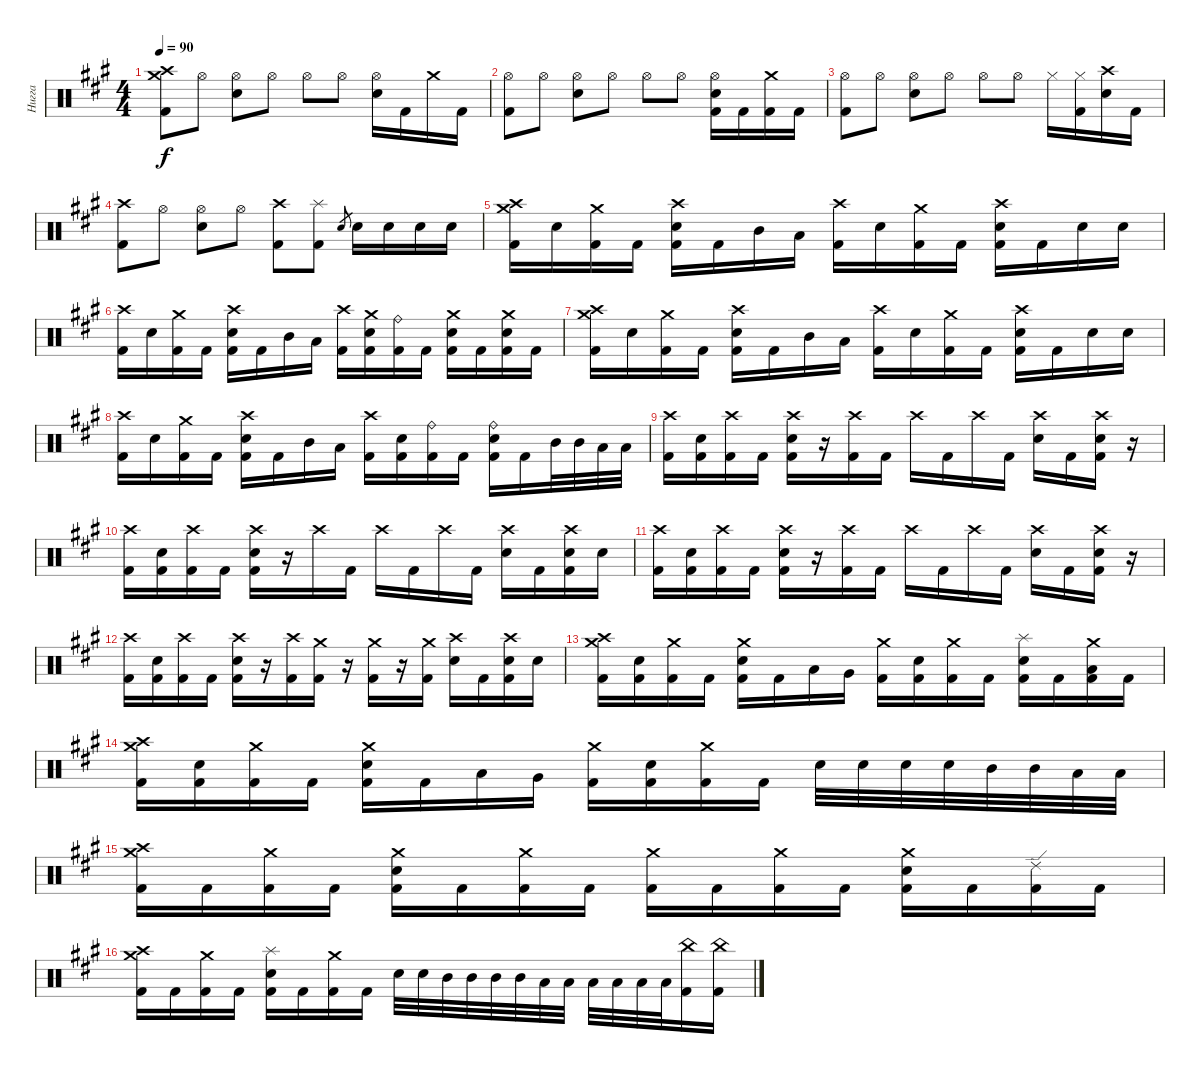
\track ("Нигга" "Нигга") {instrument percussion}
\staff
\articulation defaults
\ts (4 4)
\tempo 90
\clef neutral
\ks f#minor
("Crash high (hit)" "Crash medium (hit)" "Kick (hit) 2").8{dy f} "Hi-Hat (open)".8 ("Hi-Hat (open)" "Electric Snare (hit)").8 "Hi-Hat (open)".8 "Hi-Hat (open)".8 "Hi-Hat (open)".8 ("Hi-Hat (open)" "Electric Snare (hit)").16 "Kick (hit) 2".16 "Crash medium (hit)".16 "Kick (hit) 2".16 |
("Hi-Hat (open)" "Kick (hit) 2").8 "Hi-Hat (open)".8 ("Hi-Hat (open)" "Electric Snare (hit)").8 "Hi-Hat (open)".8 "Hi-Hat (open)".8 "Hi-Hat (open)".8 ("Hi-Hat (open)" "Electric Snare (hit)" "Kick (hit) 2").16 "Kick (hit) 2".16 ("Crash medium (hit)" "Kick (hit) 2").16 "Kick (hit) 2".16 |
("Hi-Hat (open)" "Kick (hit) 2").8 "Hi-Hat (open)".8 ("Hi-Hat (open)" "Electric Snare (hit)").8 "Hi-Hat (open)".8 "Hi-Hat (open)".8 "Hi-Hat (open)".8 "Hi-Hat (closed)".16 ("Hi-Hat (closed)" "Kick (hit) 2").16 ("Crash high (hit)" "Electric Snare (hit)").16 "Kick (hit) 2".16 |
("Crash high (hit)" "Kick (hit) 2").8 "Hi-Hat (open)".8 ("Hi-Hat (open)" "Electric Snare (hit)").8 "Hi-Hat (open)".8 ("Crash high (hit)" "Kick (hit) 2").8 ("Splash (hit)" "Kick (hit) 2").8 "Electric Snare (hit)".8{gr} "Electric Snare (hit)".16 "Electric Snare (hit)".16 "Electric Snare (hit)".16 "Electric Snare (hit)".16 |
("Crash high (hit)" "Crash medium (hit)" "Kick (hit) 2").16 "Electric Snare (hit)".16 ("Crash medium (hit)" "Kick (hit) 2").16 "Kick (hit) 2".16 ("Crash high (hit)" "Electric Snare (hit)" "Kick (hit) 2").16 "Kick (hit) 2".16 "Mid Tom (hit)".16 "Low Tom (hit)".16 ("Crash high (hit)" "Kick (hit) 2").16 "Electric Snare (hit)".16 ("Crash medium (hit)" "Kick (hit) 2").16 "Kick (hit) 2".16 ("Crash high (hit)" "Electric Snare (hit)" "Kick (hit) 2").16 "Kick (hit) 2".16 "Electric Snare (hit)".16 "Electric Snare (hit)".16 |
("Crash high (hit)" "Kick (hit) 2").16 "Electric Snare (hit)".16 ("Crash medium (hit)" "Kick (hit) 2").16 "Kick (hit) 2".16 ("Crash high (hit)" "Electric Snare (hit)" "Kick (hit) 2").16 "Kick (hit) 2".16 "Mid Tom (hit)".16 "Low Tom (hit)".16 ("Crash high (hit)" "Kick (hit) 2").16 ("Crash medium (hit)" "Electric Snare (hit)" "Kick (hit) 2").16 ("Ride (bell)" "Kick (hit) 2").16 "Kick (hit) 2".16 ("Crash medium (hit)" "Electric Snare (hit)" "Kick (hit) 2").16 "Kick (hit) 2".16 ("Crash medium (hit)" "Electric Snare (hit)" "Kick (hit) 2").16 "Kick (hit) 2".16 |
("Crash high (hit)" "Crash medium (hit)" "Kick (hit) 2").16 "Electric Snare (hit)".16 ("Crash medium (hit)" "Kick (hit) 2").16 "Kick (hit) 2".16 ("Crash high (hit)" "Electric Snare (hit)" "Kick (hit) 2").16 "Kick (hit) 2".16 "Mid Tom (hit)".16 "Low Tom (hit)".16 ("Crash high (hit)" "Kick (hit) 2").16 "Electric Snare (hit)".16 ("Crash medium (hit)" "Kick (hit) 2").16 "Kick (hit) 2".16 ("Crash high (hit)" "Electric Snare (hit)" "Kick (hit) 2").16 "Kick (hit) 2".16 "Electric Snare (hit)".16 "Electric Snare (hit)".16 |
("Crash high (hit)" "Kick (hit) 2").16 "Electric Snare (hit)".16 ("Crash medium (hit)" "Kick (hit) 2").16 "Kick (hit) 2".16 ("Crash high (hit)" "Electric Snare (hit)" "Kick (hit) 2").16 "Kick (hit) 2".16 "Mid Tom (hit)".16 "Low Tom (hit)".16 ("Crash high (hit)" "Kick (hit) 2").16 ("Electric Snare (hit)" "Kick (hit) 2").16 ("Ride (bell)" "Kick (hit) 2").16 "Kick (hit) 2".16 ("Ride (bell)" "Electric Snare (hit)" "Kick (hit) 2").16 "Kick (hit) 2".16 "Mid Tom (hit)".32 "Mid Tom (hit)".32 "Low Tom (hit)".32 "Low Tom (hit)".32 |
("Crash high (hit)" "Kick (hit) 2").16 ("Electric Snare (hit)" "Kick (hit) 2").16 ("Crash high (hit)" "Kick (hit) 2").16 "Kick (hit) 2".16 ("Crash high (hit)" "Electric Snare (hit)" "Kick (hit) 2").16 r.16 ("Crash high (hit)" "Kick (hit) 2").16 "Kick (hit) 2".16 "Crash high (hit)".16 "Kick (hit) 2".16 "Crash high (hit)".16 "Kick (hit) 2".16 ("Crash high (hit)" "Electric Snare (hit)").16 "Kick (hit) 2".16 ("Crash high (hit)" "Electric Snare (hit)" "Kick (hit) 2").16 r.16 |
("Crash high (hit)" "Kick (hit) 2").16 ("Electric Snare (hit)" "Kick (hit) 2").16 ("Crash high (hit)" "Kick (hit) 2").16 "Kick (hit) 2".16 ("Crash high (hit)" "Electric Snare (hit)" "Kick (hit) 2").16 r.16 "Crash high (hit)".16 "Kick (hit) 2".16 "Crash high (hit)".16 "Kick (hit) 2".16 "Crash high (hit)".16 "Kick (hit) 2".16 ("Crash high (hit)" "Electric Snare (hit)").16 "Kick (hit) 2".16 ("Crash high (hit)" "Electric Snare (hit)" "Kick (hit) 2").16 "Electric Snare (hit)".16 |
("Crash high (hit)" "Kick (hit) 2").16 ("Electric Snare (hit)" "Kick (hit) 2").16 ("Crash high (hit)" "Kick (hit) 2").16 "Kick (hit) 2".16 ("Crash high (hit)" "Electric Snare (hit)" "Kick (hit) 2").16 r.16 ("Crash high (hit)" "Kick (hit) 2").16 "Kick (hit) 2".16 "Crash high (hit)".16 "Kick (hit) 2".16 "Crash high (hit)".16 "Kick (hit) 2".16 ("Crash high (hit)" "Electric Snare (hit)").16 "Kick (hit) 2".16 ("Crash high (hit)" "Electric Snare (hit)" "Kick (hit) 2").16 r.16 |
("Crash high (hit)" "Kick (hit) 2").16 ("Electric Snare (hit)" "Kick (hit) 2").16 ("Crash high (hit)" "Kick (hit) 2").16 "Kick (hit) 2".16 ("Crash high (hit)" "Electric Snare (hit)" "Kick (hit) 2").16 r.16 ("Crash high (hit)" "Kick (hit) 2").16 ("Crash medium (hit)" "Kick (hit) 2").16 r.16 ("Crash medium (hit)" "Kick (hit) 2").16 r.16 ("Crash medium (hit)" "Kick (hit) 2").16 ("Crash high (hit)" "Electric Snare (hit)").16 "Kick (hit) 2".16 ("Crash high (hit)" "Electric Snare (hit)" "Kick (hit) 2").16 "Electric Snare (hit)".16 |
("Crash high (hit)" "Crash medium (hit)" "Kick (hit) 2").16 ("Electric Snare (hit)" "Kick (hit) 2").16 ("Crash medium (hit)" "Kick (hit) 2").16 "Kick (hit) 2".16 ("Crash medium (hit)" "Electric Snare (hit)" "Kick (hit) 2").16 "Kick (hit) 2".16 "Low Tom (hit)".16 "Very Low Tom (hit)".16 ("Crash medium (hit)" "Kick (hit) 2").16 ("Electric Snare (hit)" "Kick (hit) 2").16 ("Crash medium (hit)" "Kick (hit) 2").16 "Kick (hit) 2".16 ("Splash (hit)" "Electric Snare (hit)" "Kick (hit) 2").16 "Kick (hit) 2".16 ("Crash medium (hit)" "Low Tom (hit)" "Kick (hit) 2").16 "Kick (hit) 2".16 |
("Crash high (hit)" "Crash medium (hit)" "Kick (hit) 2").16 ("Electric Snare (hit)" "Kick (hit) 2").16 ("Crash medium (hit)" "Kick (hit) 2").16 "Kick (hit) 2".16 ("Crash medium (hit)" "Electric Snare (hit)" "Kick (hit) 2").16 "Kick (hit) 2".16 "Low Tom (hit)".16 "Very Low Tom (hit)".16 ("Crash medium (hit)" "Kick (hit) 2").16 ("Electric Snare (hit)" "Kick (hit) 2").16 ("Crash medium (hit)" "Kick (hit) 2").16 "Kick (hit) 2".16 "Electric Snare (hit)".32 "Electric Snare (hit)".32 "Electric Snare (hit)".32 "Electric Snare (hit)".32 "Mid Tom (hit)".32 "Mid Tom (hit)".32 "Low Tom (hit)".32 "Low Tom (hit)".32 |
("Crash high (hit)" "Crash medium (hit)" "Kick (hit) 2").16 "Kick (hit) 2".16 ("Crash medium (hit)" "Kick (hit) 2").16 "Kick (hit) 2".16 ("Crash medium (hit)" "Electric Snare (hit)" "Kick (hit) 2").16 "Kick (hit) 2".16 ("Crash medium (hit)" "Kick (hit) 2").16 "Kick (hit) 2".16 ("Crash medium (hit)" "Kick (hit) 2").16 "Kick (hit) 2".16 ("Crash medium (hit)" "Kick (hit) 2").16 "Kick (hit) 2".16 ("Crash medium (hit)" "Electric Snare (hit)" "Kick (hit) 2").16 "Kick (hit) 2".16 ("Ride (edge) 2" "Kick (hit) 2").16 "Kick (hit) 2".16 |
("Crash high (hit)" "Crash medium (hit)" "Kick (hit) 2").16 "Kick (hit) 2".16 ("Crash medium (hit)" "Kick (hit) 2").16 "Kick (hit) 2".16 ("Splash (hit)" "Electric Snare (hit)" "Kick (hit) 2").16 "Kick (hit) 2".16 ("Crash medium (hit)" "Kick (hit) 2").16 "Kick (hit) 2".16 "Electric Snare (hit)".32 "Electric Snare (hit)".32 "Mid Tom (hit)".32 "Mid Tom (hit)".32 "Mid Tom (hit)".32 "Mid Tom (hit)".32 "Low Tom (hit)".32 "Low Tom (hit)".32 "Low Tom (hit)".32 "Low Tom (hit)".32 "Low Tom (hit)".32 "Low Tom (hit)".32 ("China (hit)" "Kick (hit) 2").16 ("China (hit)" "Kick (hit) 2").16
